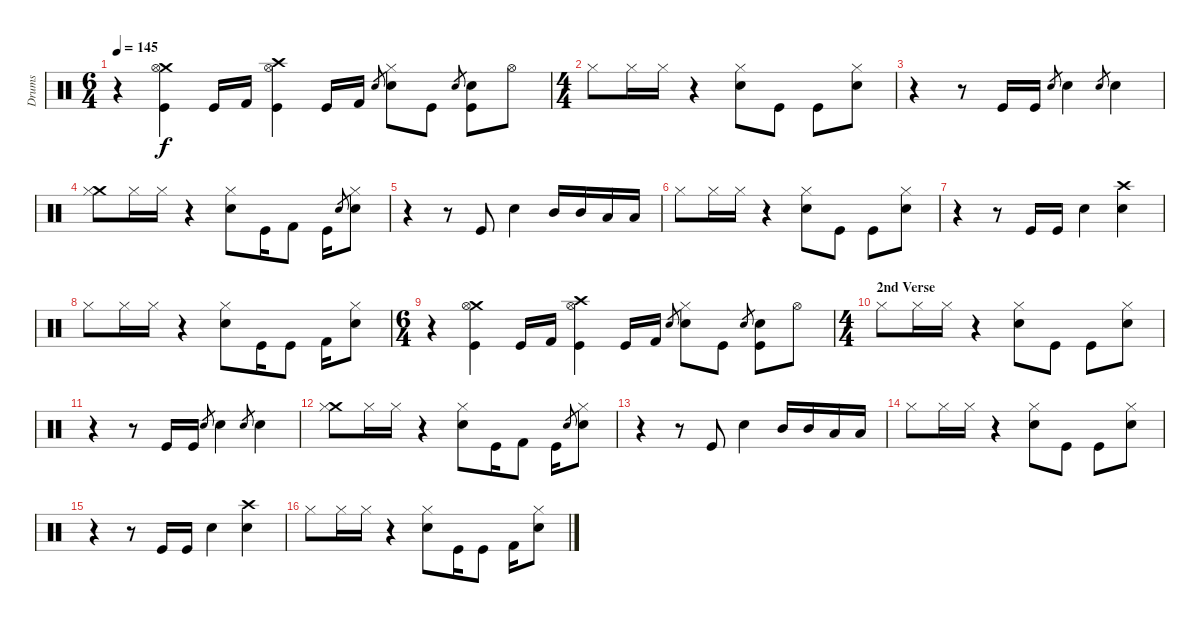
\track ("Drums" "Drums") {instrument percussion}
\staff {score}
\articulation defaults
\ts (6 4)
\tempo 145
\clef neutral
\ks c
r.4{dy f} ("Crash medium (hit)" "Hi-Hat (open)" "Kick (hit)").4 "Kick (hit)".16 "Kick (hit) 2".16 ("Crash high (hit)" "Hi-Hat (open)" "Kick (hit)").4 "Kick (hit)".16 "Kick (hit) 2".16 "Snare (hit) 2".8{gr} ("Hi-Hat (closed)" "Snare (hit) 2").8 "Kick (hit)".8 "Snare (hit) 2".8{gr} ("Snare (hit) 2" "Kick (hit)").8 "Hi-Hat (open)".8 |
\ts (4 4)
"Hi-Hat (closed)".8 "Hi-Hat (closed)".16 "Hi-Hat (closed)".16 r.4 ("Hi-Hat (closed)" "Snare (hit) 2").8 "Kick (hit)".8 "Kick (hit)".8 ("Hi-Hat (closed)" "Snare (hit) 2").8 |
r.4 r.8 "Kick (hit)".16 "Kick (hit)".16 "Snare (hit) 2".8{gr} "Snare (hit) 2".4 "Snare (hit) 2".8{gr} "Snare (hit) 2".4 |
("Crash medium (hit)" "Hi-Hat (closed)").8 "Hi-Hat (closed)".16 "Hi-Hat (closed)".16 r.4 ("Hi-Hat (closed)" "Snare (hit) 2").8 "Kick (hit)".16 "Kick (hit) 2".8 "Kick (hit)".16 "Snare (hit) 2".8{gr} ("Hi-Hat (closed)" "Snare (hit) 2").8 |
r.4 r.8 "Kick (hit)".8 "Snare (hit) 2".4 "Mid Tom (hit)".16 "Mid Tom (hit)".16 "Low Tom (hit)".16 "Low Tom (hit)".16 |
"Hi-Hat (closed)".8 "Hi-Hat (closed)".16 "Hi-Hat (closed)".16 r.4 ("Hi-Hat (closed)" "Snare (hit) 2").8 "Kick (hit)".8 "Kick (hit)".8 ("Hi-Hat (closed)" "Snare (hit) 2").8 |
r.4 r.8 "Kick (hit)".16 "Kick (hit)".16 "Snare (hit) 2".4 ("Crash high (hit)" "Snare (hit) 2").4 |
"Hi-Hat (closed)".8 "Hi-Hat (closed)".16 "Hi-Hat (closed)".16 r.4 ("Hi-Hat (closed)" "Snare (hit) 2").8 "Kick (hit)".16 "Kick (hit)".8 "Kick (hit) 2".16 ("Hi-Hat (closed)" "Snare (hit) 2").8 |
\ts (6 4)
r.4 ("Crash medium (hit)" "Hi-Hat (open)" "Kick (hit)").4 "Kick (hit)".16 "Kick (hit) 2".16 ("Crash high (hit)" "Hi-Hat (open)" "Kick (hit)").4 "Kick (hit)".16 "Kick (hit) 2".16 "Snare (hit) 2".8{gr} ("Hi-Hat (closed)" "Snare (hit) 2").8 "Kick (hit)".8 "Snare (hit) 2".8{gr} ("Snare (hit) 2" "Kick (hit)").8 "Hi-Hat (open)".8 |
\ts (4 4)
\section ("" "2nd Verse")
"Hi-Hat (closed)".8 "Hi-Hat (closed)".16 "Hi-Hat (closed)".16 r.4 ("Hi-Hat (closed)" "Snare (hit) 2").8 "Kick (hit)".8 "Kick (hit)".8 ("Hi-Hat (closed)" "Snare (hit) 2").8 |
r.4 r.8 "Kick (hit)".16 "Kick (hit)".16 "Snare (hit) 2".8{gr} "Snare (hit) 2".4 "Snare (hit) 2".8{gr} "Snare (hit) 2".4 |
("Crash medium (hit)" "Hi-Hat (closed)").8 "Hi-Hat (closed)".16 "Hi-Hat (closed)".16 r.4 ("Hi-Hat (closed)" "Snare (hit) 2").8 "Kick (hit)".16 "Kick (hit) 2".8 "Kick (hit)".16 "Snare (hit) 2".8{gr} ("Hi-Hat (closed)" "Snare (hit) 2").8 |
r.4 r.8 "Kick (hit)".8 "Snare (hit) 2".4 "Mid Tom (hit)".16 "Mid Tom (hit)".16 "Low Tom (hit)".16 "Low Tom (hit)".16 |
"Hi-Hat (closed)".8 "Hi-Hat (closed)".16 "Hi-Hat (closed)".16 r.4 ("Hi-Hat (closed)" "Snare (hit) 2").8 "Kick (hit)".8 "Kick (hit)".8 ("Hi-Hat (closed)" "Snare (hit) 2").8 |
r.4 r.8 "Kick (hit)".16 "Kick (hit)".16 "Snare (hit) 2".4 ("Crash high (hit)" "Snare (hit) 2").4 |
"Hi-Hat (closed)".8 "Hi-Hat (closed)".16 "Hi-Hat (closed)".16 r.4 ("Hi-Hat (closed)" "Snare (hit) 2").8 "Kick (hit)".16 "Kick (hit)".8 "Kick (hit) 2".16 ("Hi-Hat (closed)" "Snare (hit) 2").8
